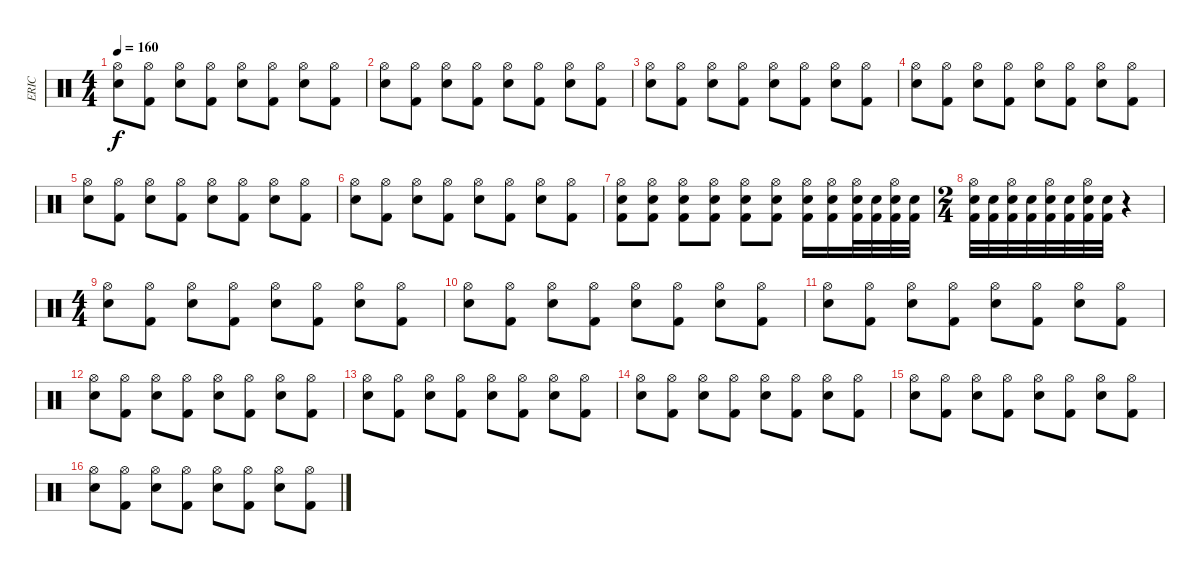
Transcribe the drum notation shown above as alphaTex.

\track ("ERIC" "ERIC") {instrument percussion}
\staff {score}
\articulation defaults
\ts (4 4)
\tempo 160
\clef neutral
\ks c
("Hi-Hat (open)" "Electric Snare (hit)").8{dy f} ("Hi-Hat (open)" "Kick (hit) 2").8 ("Hi-Hat (open)" "Electric Snare (hit)").8 ("Hi-Hat (open)" "Kick (hit) 2").8 ("Hi-Hat (open)" "Electric Snare (hit)").8 ("Hi-Hat (open)" "Kick (hit) 2").8 ("Hi-Hat (open)" "Electric Snare (hit)").8 ("Hi-Hat (open)" "Kick (hit) 2").8 |
("Hi-Hat (open)" "Electric Snare (hit)").8 ("Hi-Hat (open)" "Kick (hit) 2").8 ("Hi-Hat (open)" "Electric Snare (hit)").8 ("Hi-Hat (open)" "Kick (hit) 2").8 ("Hi-Hat (open)" "Electric Snare (hit)").8 ("Hi-Hat (open)" "Kick (hit) 2").8 ("Hi-Hat (open)" "Electric Snare (hit)").8 ("Hi-Hat (open)" "Kick (hit) 2").8 |
("Hi-Hat (open)" "Electric Snare (hit)").8 ("Hi-Hat (open)" "Kick (hit) 2").8 ("Hi-Hat (open)" "Electric Snare (hit)").8 ("Hi-Hat (open)" "Kick (hit) 2").8 ("Hi-Hat (open)" "Electric Snare (hit)").8 ("Hi-Hat (open)" "Kick (hit) 2").8 ("Hi-Hat (open)" "Electric Snare (hit)").8 ("Hi-Hat (open)" "Kick (hit) 2").8 |
("Hi-Hat (open)" "Electric Snare (hit)").8 ("Hi-Hat (open)" "Kick (hit) 2").8 ("Hi-Hat (open)" "Electric Snare (hit)").8 ("Hi-Hat (open)" "Kick (hit) 2").8 ("Hi-Hat (open)" "Electric Snare (hit)").8 ("Hi-Hat (open)" "Kick (hit) 2").8 ("Hi-Hat (open)" "Electric Snare (hit)").8 ("Hi-Hat (open)" "Kick (hit) 2").8 |
("Hi-Hat (open)" "Electric Snare (hit)").8 ("Hi-Hat (open)" "Kick (hit) 2").8 ("Hi-Hat (open)" "Electric Snare (hit)").8 ("Hi-Hat (open)" "Kick (hit) 2").8 ("Hi-Hat (open)" "Electric Snare (hit)").8 ("Hi-Hat (open)" "Kick (hit) 2").8 ("Hi-Hat (open)" "Electric Snare (hit)").8 ("Hi-Hat (open)" "Kick (hit) 2").8 |
("Hi-Hat (open)" "Electric Snare (hit)").8 ("Hi-Hat (open)" "Kick (hit) 2").8 ("Hi-Hat (open)" "Electric Snare (hit)").8 ("Hi-Hat (open)" "Kick (hit) 2").8 ("Hi-Hat (open)" "Electric Snare (hit)").8 ("Hi-Hat (open)" "Kick (hit) 2").8 ("Hi-Hat (open)" "Electric Snare (hit)").8 ("Hi-Hat (open)" "Kick (hit) 2").8 |
("Hi-Hat (open)" "Electric Snare (hit)" "Kick (hit) 2").8 ("Hi-Hat (open)" "Electric Snare (hit)" "Kick (hit) 2").8 ("Hi-Hat (open)" "Electric Snare (hit)" "Kick (hit) 2").8 ("Hi-Hat (open)" "Electric Snare (hit)" "Kick (hit) 2").8 ("Hi-Hat (open)" "Electric Snare (hit)" "Kick (hit) 2").8 ("Hi-Hat (open)" "Electric Snare (hit)" "Kick (hit) 2").8 ("Hi-Hat (open)" "Electric Snare (hit)" "Kick (hit) 2").16 ("Hi-Hat (open)" "Electric Snare (hit)" "Kick (hit) 2").16 ("Hi-Hat (open)" "Electric Snare (hit)" "Kick (hit) 2").32 ("Electric Snare (hit)" "Kick (hit) 2").32 ("Hi-Hat (open)" "Electric Snare (hit)" "Kick (hit) 2").32 ("Electric Snare (hit)" "Kick (hit) 2").32 |
\ts (2 4)
("Hi-Hat (open)" "Electric Snare (hit)" "Kick (hit) 2").32 ("Electric Snare (hit)" "Kick (hit) 2").32 ("Hi-Hat (open)" "Electric Snare (hit)" "Kick (hit) 2").32 ("Electric Snare (hit)" "Kick (hit) 2").32 ("Hi-Hat (open)" "Electric Snare (hit)" "Kick (hit) 2").32 ("Electric Snare (hit)" "Kick (hit) 2").32 ("Hi-Hat (open)" "Electric Snare (hit)" "Kick (hit) 2").32 ("Electric Snare (hit)" "Kick (hit) 2").32 r.4 |
\ts (4 4)
("Hi-Hat (open)" "Electric Snare (hit)").8 ("Hi-Hat (open)" "Kick (hit) 2").8 ("Hi-Hat (open)" "Electric Snare (hit)").8 ("Hi-Hat (open)" "Kick (hit) 2").8 ("Hi-Hat (open)" "Electric Snare (hit)").8 ("Hi-Hat (open)" "Kick (hit) 2").8 ("Hi-Hat (open)" "Electric Snare (hit)").8 ("Hi-Hat (open)" "Kick (hit) 2").8 |
("Hi-Hat (open)" "Electric Snare (hit)").8 ("Hi-Hat (open)" "Kick (hit) 2").8 ("Hi-Hat (open)" "Electric Snare (hit)").8 ("Hi-Hat (open)" "Kick (hit) 2").8 ("Hi-Hat (open)" "Electric Snare (hit)").8 ("Hi-Hat (open)" "Kick (hit) 2").8 ("Hi-Hat (open)" "Electric Snare (hit)").8 ("Hi-Hat (open)" "Kick (hit) 2").8 |
("Hi-Hat (open)" "Electric Snare (hit)").8 ("Hi-Hat (open)" "Kick (hit) 2").8 ("Hi-Hat (open)" "Electric Snare (hit)").8 ("Hi-Hat (open)" "Kick (hit) 2").8 ("Hi-Hat (open)" "Electric Snare (hit)").8 ("Hi-Hat (open)" "Kick (hit) 2").8 ("Hi-Hat (open)" "Electric Snare (hit)").8 ("Hi-Hat (open)" "Kick (hit) 2").8 |
("Hi-Hat (open)" "Electric Snare (hit)").8 ("Hi-Hat (open)" "Kick (hit) 2").8 ("Hi-Hat (open)" "Electric Snare (hit)").8 ("Hi-Hat (open)" "Kick (hit) 2").8 ("Hi-Hat (open)" "Electric Snare (hit)").8 ("Hi-Hat (open)" "Kick (hit) 2").8 ("Hi-Hat (open)" "Electric Snare (hit)").8 ("Hi-Hat (open)" "Kick (hit) 2").8 |
("Hi-Hat (open)" "Electric Snare (hit)").8 ("Hi-Hat (open)" "Kick (hit) 2").8 ("Hi-Hat (open)" "Electric Snare (hit)").8 ("Hi-Hat (open)" "Kick (hit) 2").8 ("Hi-Hat (open)" "Electric Snare (hit)").8 ("Hi-Hat (open)" "Kick (hit) 2").8 ("Hi-Hat (open)" "Electric Snare (hit)").8 ("Hi-Hat (open)" "Kick (hit) 2").8 |
("Hi-Hat (open)" "Electric Snare (hit)").8 ("Hi-Hat (open)" "Kick (hit) 2").8 ("Hi-Hat (open)" "Electric Snare (hit)").8 ("Hi-Hat (open)" "Kick (hit) 2").8 ("Hi-Hat (open)" "Electric Snare (hit)").8 ("Hi-Hat (open)" "Kick (hit) 2").8 ("Hi-Hat (open)" "Electric Snare (hit)").8 ("Hi-Hat (open)" "Kick (hit) 2").8 |
("Hi-Hat (open)" "Electric Snare (hit)").8 ("Hi-Hat (open)" "Kick (hit) 2").8 ("Hi-Hat (open)" "Electric Snare (hit)").8 ("Hi-Hat (open)" "Kick (hit) 2").8 ("Hi-Hat (open)" "Electric Snare (hit)").8 ("Hi-Hat (open)" "Kick (hit) 2").8 ("Hi-Hat (open)" "Electric Snare (hit)").8 ("Hi-Hat (open)" "Kick (hit) 2").8 |
("Hi-Hat (open)" "Electric Snare (hit)").8 ("Hi-Hat (open)" "Kick (hit) 2").8 ("Hi-Hat (open)" "Electric Snare (hit)").8 ("Hi-Hat (open)" "Kick (hit) 2").8 ("Hi-Hat (open)" "Electric Snare (hit)").8 ("Hi-Hat (open)" "Kick (hit) 2").8 ("Hi-Hat (open)" "Electric Snare (hit)").8 ("Hi-Hat (open)" "Kick (hit) 2").8
